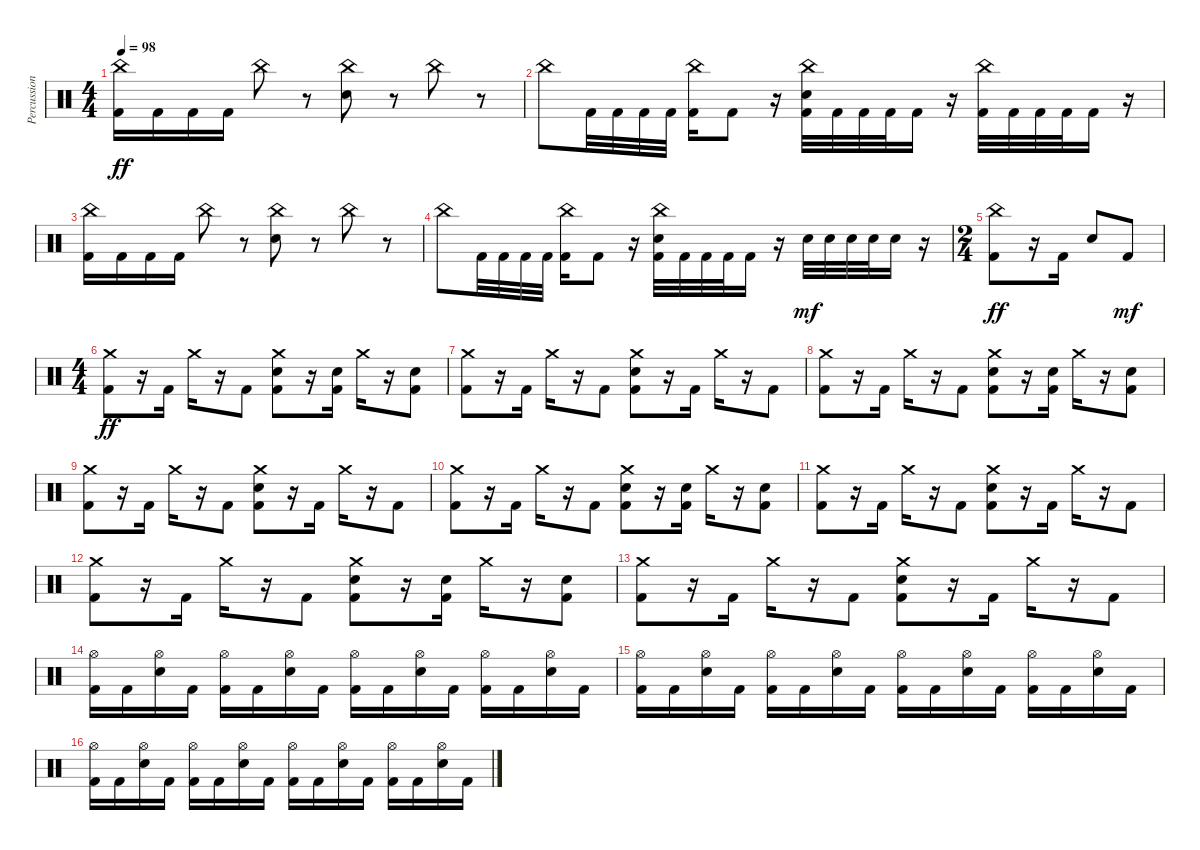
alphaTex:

\track ("Percussion" "Percussion") {instrument percussion}
\staff {score}
\articulation defaults
\ts (4 4)
\tempo 98
\clef neutral
\ks c
("China (hit)" "Kick (hit) 2").16{dy ff} "Kick (hit) 2".16 "Kick (hit) 2".16 "Kick (hit) 2".16 "China (hit)".8 r.8 ("China (hit)" "Electric Snare (hit)").8 r.8 "China (hit)".8 r.8 |
"China (hit)".8 "Kick (hit) 2".32 "Kick (hit) 2".32 "Kick (hit) 2".32 "Kick (hit) 2".32 ("China (hit)" "Kick (hit) 2").16 "Kick (hit) 2".8 r.16 ("China (hit)" "Electric Snare (hit)" "Kick (hit) 2").32 "Kick (hit) 2".32 "Kick (hit) 2".32 "Kick (hit) 2".32 "Kick (hit) 2".16 r.16 ("China (hit)" "Kick (hit) 2").32 "Kick (hit) 2".32 "Kick (hit) 2".32 "Kick (hit) 2".32 "Kick (hit) 2".16 r.16 |
("China (hit)" "Kick (hit) 2").16 "Kick (hit) 2".16 "Kick (hit) 2".16 "Kick (hit) 2".16 "China (hit)".8 r.8 ("China (hit)" "Electric Snare (hit)").8 r.8 "China (hit)".8 r.8 |
"China (hit)".8 "Kick (hit) 2".32 "Kick (hit) 2".32 "Kick (hit) 2".32 "Kick (hit) 2".32 ("China (hit)" "Kick (hit) 2").16 "Kick (hit) 2".8 r.16 ("China (hit)" "Electric Snare (hit)" "Kick (hit) 2").32 "Kick (hit) 2".32 "Kick (hit) 2".32 "Kick (hit) 2".32 "Kick (hit) 2".16 r.16 "Electric Snare (hit)".32{dy mf} "Electric Snare (hit)".32 "Electric Snare (hit)".32 "Electric Snare (hit)".32 "Electric Snare (hit)".16 r.16 |
\ts (2 4)
("China (hit)" "Kick (hit) 2").8{dy ff} r.16 "Kick (hit) 2".16 "Electric Snare (hit)".8 "Kick (hit) 2".8{dy mf} |
\ts (4 4)
("Crash medium (hit)" "Kick (hit) 2").8{dy ff} r.16 "Kick (hit) 2".16 "Crash medium (hit)".16 r.16 "Kick (hit) 2".8 ("Crash medium (hit)" "Electric Snare (hit)" "Kick (hit) 2").8 r.16 ("Electric Snare (hit)" "Kick (hit) 2").16 "Crash medium (hit)".16 r.16 ("Electric Snare (hit)" "Kick (hit) 2").8 |
("Crash medium (hit)" "Kick (hit) 2").8 r.16 "Kick (hit) 2".16 "Crash medium (hit)".16 r.16 "Kick (hit) 2".8 ("Crash medium (hit)" "Electric Snare (hit)" "Kick (hit) 2").8 r.16 "Kick (hit) 2".16 "Crash medium (hit)".16 r.16 "Kick (hit) 2".8 |
("Crash medium (hit)" "Kick (hit) 2").8 r.16 "Kick (hit) 2".16 "Crash medium (hit)".16 r.16 "Kick (hit) 2".8 ("Crash medium (hit)" "Electric Snare (hit)" "Kick (hit) 2").8 r.16 ("Electric Snare (hit)" "Kick (hit) 2").16 "Crash medium (hit)".16 r.16 ("Electric Snare (hit)" "Kick (hit) 2").8 |
("Crash medium (hit)" "Kick (hit) 2").8 r.16 "Kick (hit) 2".16 "Crash medium (hit)".16 r.16 "Kick (hit) 2".8 ("Crash medium (hit)" "Electric Snare (hit)" "Kick (hit) 2").8 r.16 "Kick (hit) 2".16 "Crash medium (hit)".16 r.16 "Kick (hit) 2".8 |
("Crash medium (hit)" "Kick (hit) 2").8 r.16 "Kick (hit) 2".16 "Crash medium (hit)".16 r.16 "Kick (hit) 2".8 ("Crash medium (hit)" "Electric Snare (hit)" "Kick (hit) 2").8 r.16 ("Electric Snare (hit)" "Kick (hit) 2").16 "Crash medium (hit)".16 r.16 ("Electric Snare (hit)" "Kick (hit) 2").8 |
("Crash medium (hit)" "Kick (hit) 2").8 r.16 "Kick (hit) 2".16 "Crash medium (hit)".16 r.16 "Kick (hit) 2".8 ("Crash medium (hit)" "Electric Snare (hit)" "Kick (hit) 2").8 r.16 "Kick (hit) 2".16 "Crash medium (hit)".16 r.16 "Kick (hit) 2".8 |
("Crash medium (hit)" "Kick (hit) 2").8 r.16 "Kick (hit) 2".16 "Crash medium (hit)".16 r.16 "Kick (hit) 2".8 ("Crash medium (hit)" "Electric Snare (hit)" "Kick (hit) 2").8 r.16 ("Electric Snare (hit)" "Kick (hit) 2").16 "Crash medium (hit)".16 r.16 ("Electric Snare (hit)" "Kick (hit) 2").8 |
("Crash medium (hit)" "Kick (hit) 2").8 r.16 "Kick (hit) 2".16 "Crash medium (hit)".16 r.16 "Kick (hit) 2".8 ("Crash medium (hit)" "Electric Snare (hit)" "Kick (hit) 2").8 r.16 "Kick (hit) 2".16 "Crash medium (hit)".16 r.16 "Kick (hit) 2".8 |
("Hi-Hat (open)" "Kick (hit) 2").16 "Kick (hit) 2".16 ("Hi-Hat (open)" "Electric Snare (hit)").16 "Kick (hit) 2".16 ("Hi-Hat (open)" "Kick (hit) 2").16 "Kick (hit) 2".16 ("Hi-Hat (open)" "Electric Snare (hit)").16 "Kick (hit) 2".16 ("Hi-Hat (open)" "Kick (hit) 2").16 "Kick (hit) 2".16 ("Hi-Hat (open)" "Electric Snare (hit)").16 "Kick (hit) 2".16 ("Hi-Hat (open)" "Kick (hit) 2").16 "Kick (hit) 2".16 ("Hi-Hat (open)" "Electric Snare (hit)").16 "Kick (hit) 2".16 |
("Hi-Hat (open)" "Kick (hit) 2").16 "Kick (hit) 2".16 ("Hi-Hat (open)" "Electric Snare (hit)").16 "Kick (hit) 2".16 ("Hi-Hat (open)" "Kick (hit) 2").16 "Kick (hit) 2".16 ("Hi-Hat (open)" "Electric Snare (hit)").16 "Kick (hit) 2".16 ("Hi-Hat (open)" "Kick (hit) 2").16 "Kick (hit) 2".16 ("Hi-Hat (open)" "Electric Snare (hit)").16 "Kick (hit) 2".16 ("Hi-Hat (open)" "Kick (hit) 2").16 "Kick (hit) 2".16 ("Hi-Hat (open)" "Electric Snare (hit)").16 "Kick (hit) 2".16 |
("Hi-Hat (open)" "Kick (hit) 2").16 "Kick (hit) 2".16 ("Hi-Hat (open)" "Electric Snare (hit)").16 "Kick (hit) 2".16 ("Hi-Hat (open)" "Kick (hit) 2").16 "Kick (hit) 2".16 ("Hi-Hat (open)" "Electric Snare (hit)").16 "Kick (hit) 2".16 ("Hi-Hat (open)" "Kick (hit) 2").16 "Kick (hit) 2".16 ("Hi-Hat (open)" "Electric Snare (hit)").16 "Kick (hit) 2".16 ("Hi-Hat (open)" "Kick (hit) 2").16 "Kick (hit) 2".16 ("Hi-Hat (open)" "Electric Snare (hit)").16 "Kick (hit) 2".16
